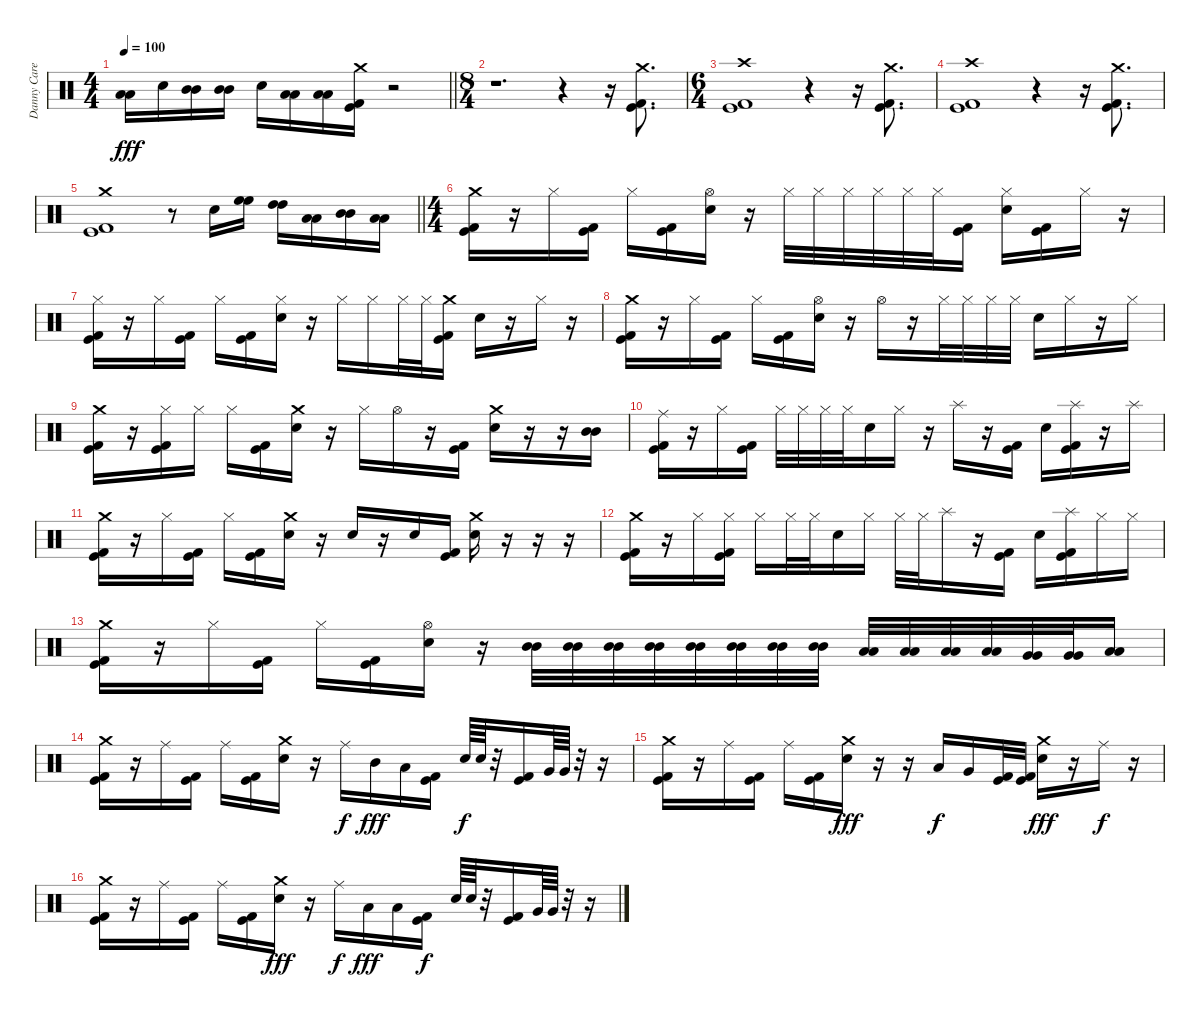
\track ("Danny Carey" "Danny Care") {instrument percussion}
\staff {score}
\articulation defaults
\ts (4 4)
\tempo 100
\clef neutral
\barLineRight lightlight
\ks c
("Low Tom (hit)" "Low Tom (hit)").16{dy fff} "Electric Snare (hit)".16 ("Mid Tom (hit)" "Mid Tom (hit)").16 ("Mid Tom (hit)" "Mid Tom (hit)").16 "Electric Snare (hit)".16 ("Low Tom (hit)" "Low Tom (hit)").16 ("Low Tom (hit)" "Low Tom (hit)").16 ("Crash medium (hit)" "Kick (hit)" "Kick (hit) 2").16 r.2 |
\ts (8 4)
r.1{d} r.4 r.16 ("Crash medium (hit)" "Kick (hit)" "Kick (hit) 2").8{d} |
\ts (6 4)
("Crash high (hit)" "Kick (hit)" "Kick (hit) 2").1 r.4 r.16 ("Crash medium (hit)" "Kick (hit)" "Kick (hit) 2").8{d} |
("Crash high (hit)" "Kick (hit)" "Kick (hit) 2").1 r.4 r.16 ("Crash medium (hit)" "Kick (hit)" "Kick (hit) 2").8{d} |
\barLineRight lightlight
("Crash medium (hit)" "Kick (hit)" "Kick (hit) 2").1 r.8 "Electric Snare (hit)".16 ("High Floor Tom (hit)" "High Floor Tom (hit)").16 ("High Tom (hit)" "High Tom (hit)").16 ("Low Tom (hit)" "Low Tom (hit)").16 ("Mid Tom (hit)" "Mid Tom (hit)").16 ("Low Tom (hit)" "Low Tom (hit)").16 |
\ts (4 4)
("Crash medium (hit)" "Kick (hit)" "Kick (hit) 2").16 r.16 "Hi-Hat (closed)".16 ("Kick (hit)" "Kick (hit) 2").16 "Hi-Hat (closed)".16 ("Kick (hit)" "Kick (hit) 2").16 ("Hi-Hat (open)" "Electric Snare (hit)").16 r.16 "Hi-Hat (closed)".32 "Hi-Hat (closed)".32 "Hi-Hat (closed)".32 "Hi-Hat (closed)".32 "Hi-Hat (closed)".32 "Hi-Hat (closed)".32 ("Kick (hit)" "Kick (hit) 2").16 ("Hi-Hat (closed)" "Electric Snare (hit)").16 ("Kick (hit)" "Kick (hit) 2").16 "Hi-Hat (closed)".16 r.16 |
("Hi-Hat (closed)" "Kick (hit)" "Kick (hit) 2").16 r.16 "Hi-Hat (closed)".16 ("Kick (hit)" "Kick (hit) 2").16 "Hi-Hat (closed)".16 ("Kick (hit)" "Kick (hit) 2").16 ("Hi-Hat (closed)" "Electric Snare (hit)").16 r.16 "Hi-Hat (closed)".16 "Hi-Hat (closed)".16 "Hi-Hat (closed)".32 "Hi-Hat (closed)".32 ("Crash medium (hit)" "Kick (hit)" "Kick (hit) 2").16 "Electric Snare (hit)".16 r.16 "Hi-Hat (closed)".16 r.16 |
("Crash medium (hit)" "Kick (hit)" "Kick (hit) 2").16 r.16 "Hi-Hat (closed)".16 ("Kick (hit)" "Kick (hit) 2").16 "Hi-Hat (closed)".16 ("Kick (hit)" "Kick (hit) 2").16 ("Hi-Hat (open)" "Electric Snare (hit)").16 r.16 "Hi-Hat (open)".16 r.16 "Hi-Hat (closed)".32 "Hi-Hat (closed)".32 "Hi-Hat (closed)".32 "Hi-Hat (closed)".32 "Electric Snare (hit)".16 "Hi-Hat (closed)".16 r.16 "Hi-Hat (closed)".16 |
("Crash medium (hit)" "Kick (hit)" "Kick (hit) 2").16 r.16 ("Hi-Hat (closed)" "Kick (hit)" "Kick (hit) 2").16 "Hi-Hat (closed)".16 "Hi-Hat (closed)".16 ("Kick (hit)" "Kick (hit) 2").16 ("Crash medium (hit)" "Electric Snare (hit)").16 r.16 "Hi-Hat (closed)".16 "Hi-Hat (open)".16 r.16 ("Kick (hit)" "Kick (hit) 2").16 ("Crash medium (hit)" "Electric Snare (hit)").16 r.16 r.16 ("Mid Tom (hit)" "Mid Tom (hit)").16 |
("Ride (middle)" "Kick (hit)" "Kick (hit) 2").16 r.16 "Hi-Hat (closed)".16 ("Kick (hit)" "Kick (hit) 2").16 "Hi-Hat (closed)".32 "Hi-Hat (closed)".32 "Hi-Hat (closed)".32 "Hi-Hat (closed)".32 "Electric Snare (hit)".16 "Hi-Hat (closed)".16 r.16 "Splash (hit)".16 r.16 ("Kick (hit)" "Kick (hit) 2").16 "Electric Snare (hit)".16 ("Splash (hit)" "Kick (hit)" "Kick (hit) 2").16 r.16 "Splash (hit)".16 |
("Crash medium (hit)" "Kick (hit)" "Kick (hit) 2").16 r.16 "Hi-Hat (closed)".16 ("Kick (hit)" "Kick (hit) 2").16 "Hi-Hat (closed)".16 ("Kick (hit)" "Kick (hit) 2").16 ("Crash medium (hit)" "Electric Snare (hit)").16 r.16 "Electric Snare (hit)".16 r.16 "Electric Snare (hit)".16 ("Kick (hit)" "Kick (hit) 2").16 ("Crash medium (hit)" "Electric Snare (hit)").16 r.16 r.16 r.16 |
("Crash medium (hit)" "Kick (hit)" "Kick (hit) 2").16 r.16 "Hi-Hat (closed)".16 ("Hi-Hat (closed)" "Kick (hit)" "Kick (hit) 2").16 "Hi-Hat (closed)".16 "Hi-Hat (closed)".32 "Hi-Hat (closed)".32 "Electric Snare (hit)".16 "Hi-Hat (closed)".16 "Hi-Hat (closed)".32 "Hi-Hat (closed)".32 "Splash (hit)".16 r.16 ("Kick (hit)" "Kick (hit) 2").16 "Electric Snare (hit)".16 ("Splash (hit)" "Kick (hit)" "Kick (hit) 2").16 "Hi-Hat (closed)".16 "Hi-Hat (closed)".16 |
("Crash medium (hit)" "Kick (hit)" "Kick (hit) 2").16 r.16 "Hi-Hat (closed)".16 ("Kick (hit)" "Kick (hit) 2").16 "Hi-Hat (closed)".16 ("Kick (hit)" "Kick (hit) 2").16 ("Hi-Hat (open)" "Electric Snare (hit)").16 r.16 ("Mid Tom (hit)" "Mid Tom (hit)").32 ("Mid Tom (hit)" "Mid Tom (hit)").32 ("Mid Tom (hit)" "Mid Tom (hit)").32 ("Mid Tom (hit)" "Mid Tom (hit)").32 ("Mid Tom (hit)" "Mid Tom (hit)").32 ("Mid Tom (hit)" "Mid Tom (hit)").32 ("Mid Tom (hit)" "Mid Tom (hit)").32 ("Mid Tom (hit)" "Mid Tom (hit)").32 ("Low Tom (hit)" "Low Tom (hit)").32 ("Low Tom (hit)" "Low Tom (hit)").32 ("Low Tom (hit)" "Low Tom (hit)").32 ("Low Tom (hit)" "Low Tom (hit)").32 ("Very Low Tom (hit)" "Very Low Tom (hit)").32 ("Very Low Tom (hit)" "Very Low Tom (hit)").32 ("Low Floor Tom (hit)" "Low Floor Tom (hit)").16 |
("Crash medium (hit)" "Kick (hit)" "Kick (hit) 2").16 r.16 "Ride (middle)".16 ("Kick (hit)" "Kick (hit) 2").16 "Ride (middle)".16 ("Kick (hit)" "Kick (hit) 2").16 ("Crash medium (hit)" "Electric Snare (hit)").16 r.16 "Ride (middle)".16{dy f} "Mid Tom (hit)".16{dy fff} "Low Tom (hit)".16 ("Kick (hit)" "Kick (hit) 2").16 "Electric Snare (hit)".64{dy f} "Electric Snare (hit)".64 r.32 ("Kick (hit)" "Kick (hit) 2").16 "Very Low Tom (hit)".64 "Very Low Tom (hit)".64 r.32 r.16 |
("Crash medium (hit)" "Kick (hit)" "Kick (hit) 2").16 r.16 "Ride (middle)".16 ("Kick (hit)" "Kick (hit) 2").16 "Ride (middle)".16 ("Kick (hit)" "Kick (hit) 2").16 ("Crash medium (hit)" "Electric Snare (hit)").16{dy fff} r.16 r.16 "Low Tom (hit)".16{dy f} "Very Low Tom (hit)".16 ("Kick (hit)" "Kick (hit) 2").32 ("Kick (hit)" "Kick (hit) 2").32 ("Crash medium (hit)" "Electric Snare (hit)").16{dy fff} r.16 "Ride (middle)".16{dy f} r.16 |
("Crash medium (hit)" "Kick (hit)" "Kick (hit) 2").16 r.16 "Ride (middle)".16 ("Kick (hit)" "Kick (hit) 2").16 "Ride (middle)".16 ("Kick (hit)" "Kick (hit) 2").16 ("Crash medium (hit)" "Electric Snare (hit)").16{dy fff} r.16 "Ride (middle)".16{dy f} "Low Tom (hit)".16{dy fff} "Low Tom (hit)".16 ("Kick (hit)" "Kick (hit) 2").16{dy f} "Electric Snare (hit)".64 "Electric Snare (hit)".64 r.32 ("Kick (hit)" "Kick (hit) 2").16 "Very Low Tom (hit)".64 "Very Low Tom (hit)".64 r.32 r.16
